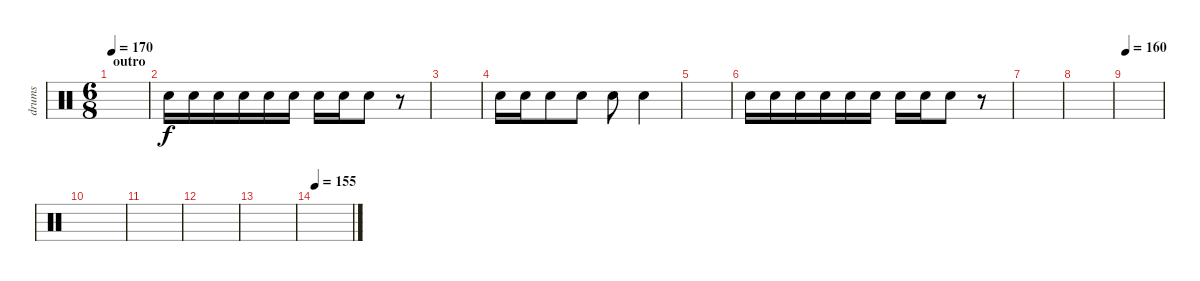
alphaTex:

\track ("drums " "drums ") {instrument percussion}
\staff {score}
\articulation defaults
\ts (6 8)
\section ("" "outro")
\tempo 170
\clef neutral
\ks c
|
"Electric Snare (hit)".16 "Electric Snare (hit)".16 "Electric Snare (hit)".16 "Electric Snare (hit)".16 "Electric Snare (hit)".16 "Electric Snare (hit)".16 "Electric Snare (hit)".16 "Electric Snare (hit)".16 "Electric Snare (hit)".8 r.8 |
|
"Electric Snare (hit)".16 "Electric Snare (hit)".16 "Electric Snare (hit)".8 "Electric Snare (hit)".8 "Electric Snare (hit)".8 "Electric Snare (hit)".4 |
|
"Electric Snare (hit)".16 "Electric Snare (hit)".16 "Electric Snare (hit)".16 "Electric Snare (hit)".16 "Electric Snare (hit)".16 "Electric Snare (hit)".16 "Electric Snare (hit)".16 "Electric Snare (hit)".16 "Electric Snare (hit)".8 r.8 |
|
|
\tempo 160
|
|
|
|
|
\tempo 155
